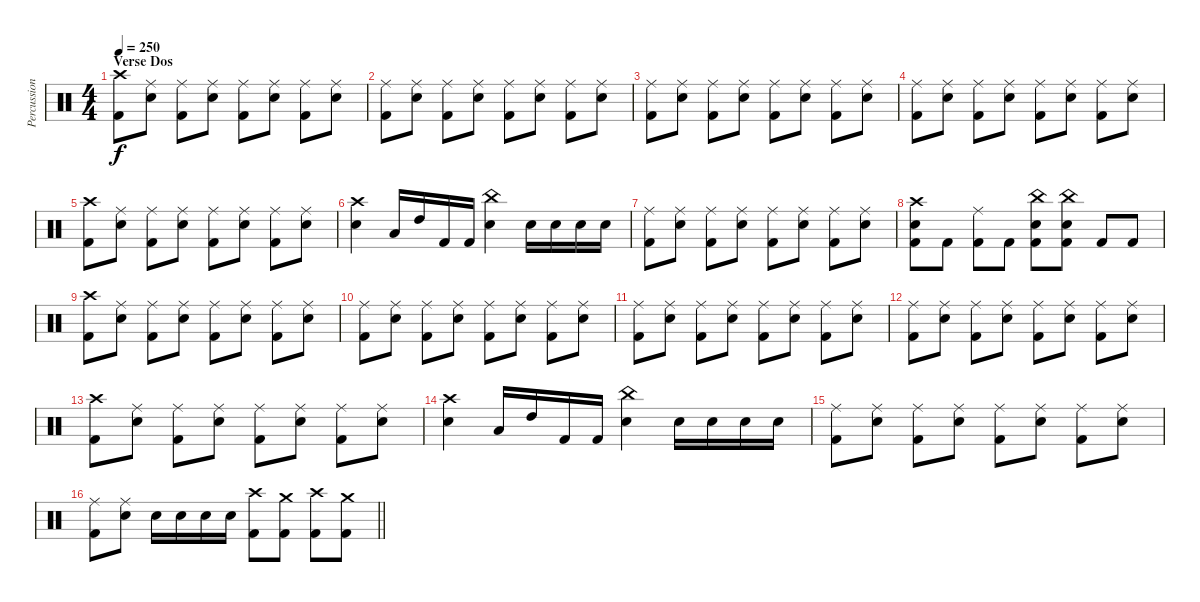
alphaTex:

\track ("Percussion" "Percussion") {instrument percussion}
\staff {score}
\articulation defaults
\ts (4 4)
\section ("" "Verse Dos")
\tempo 250
\clef neutral
\ks c
("Crash high (hit)" "Kick (hit) 2").8{dy f volume 16} ("Ride (middle)" "Electric Snare (hit)").8 ("Ride (middle)" "Kick (hit) 2").8 ("Ride (middle)" "Electric Snare (hit)").8 ("Ride (middle)" "Kick (hit) 2").8 ("Ride (middle)" "Electric Snare (hit)").8 ("Ride (middle)" "Kick (hit) 2").8 ("Ride (middle)" "Electric Snare (hit)").8 |
("Ride (middle)" "Kick (hit) 2").8 ("Ride (middle)" "Electric Snare (hit)").8 ("Ride (middle)" "Kick (hit) 2").8 ("Ride (middle)" "Electric Snare (hit)").8 ("Ride (middle)" "Kick (hit) 2").8 ("Ride (middle)" "Electric Snare (hit)").8 ("Ride (middle)" "Kick (hit) 2").8 ("Ride (middle)" "Electric Snare (hit)").8 |
("Ride (middle)" "Kick (hit) 2").8 ("Ride (middle)" "Electric Snare (hit)").8 ("Ride (middle)" "Kick (hit) 2").8 ("Ride (middle)" "Electric Snare (hit)").8 ("Ride (middle)" "Kick (hit) 2").8 ("Ride (middle)" "Electric Snare (hit)").8 ("Ride (middle)" "Kick (hit) 2").8 ("Ride (middle)" "Electric Snare (hit)").8 |
("Ride (middle)" "Kick (hit) 2").8 ("Ride (middle)" "Electric Snare (hit)").8 ("Ride (middle)" "Kick (hit) 2").8 ("Ride (middle)" "Electric Snare (hit)").8 ("Ride (middle)" "Kick (hit) 2").8 ("Ride (middle)" "Electric Snare (hit)").8 ("Ride (middle)" "Kick (hit) 2").8 ("Ride (middle)" "Electric Snare (hit)").8 |
("Crash high (hit)" "Kick (hit) 2").8 ("Ride (middle)" "Electric Snare (hit)").8 ("Ride (middle)" "Kick (hit) 2").8 ("Ride (middle)" "Electric Snare (hit)").8 ("Ride (middle)" "Kick (hit) 2").8 ("Ride (middle)" "Electric Snare (hit)").8 ("Ride (middle)" "Kick (hit) 2").8 ("Ride (middle)" "Electric Snare (hit)").8 |
("Crash high (hit)" "Electric Snare (hit)").4 "Low Tom (hit)".16 "High Tom (hit)".16 "Kick (hit) 2".16 "Kick (hit) 2".16 ("China (hit)" "Electric Snare (hit)").4 "Electric Snare (hit)".16 "Electric Snare (hit)".16 "Electric Snare (hit)".16 "Electric Snare (hit)".16 |
("Ride (middle)" "Kick (hit) 2").8 ("Ride (middle)" "Electric Snare (hit)").8 ("Ride (middle)" "Kick (hit) 2").8 ("Ride (middle)" "Electric Snare (hit)").8 ("Ride (middle)" "Kick (hit) 2").8 ("Ride (middle)" "Electric Snare (hit)").8 ("Ride (middle)" "Kick (hit) 2").8 ("Ride (middle)" "Electric Snare (hit)").8 |
("Crash high (hit)" "Kick (hit) 2" "Electric Snare (hit)").8 "Kick (hit) 2".8 ("Ride (middle)" "Kick (hit) 2").8 "Kick (hit) 2".8 ("China (hit)" "Kick (hit) 2" "Electric Snare (hit)").8 ("China (hit)" "Kick (hit) 2" "Electric Snare (hit)").8 "Kick (hit) 2".8 "Kick (hit) 2".8 |
("Crash high (hit)" "Kick (hit) 2").8 ("Ride (middle)" "Electric Snare (hit)").8 ("Ride (middle)" "Kick (hit) 2").8 ("Ride (middle)" "Electric Snare (hit)").8 ("Ride (middle)" "Kick (hit) 2").8 ("Ride (middle)" "Electric Snare (hit)").8 ("Ride (middle)" "Kick (hit) 2").8 ("Ride (middle)" "Electric Snare (hit)").8 |
("Ride (middle)" "Kick (hit) 2").8 ("Ride (middle)" "Electric Snare (hit)").8 ("Ride (middle)" "Kick (hit) 2").8 ("Ride (middle)" "Electric Snare (hit)").8 ("Ride (middle)" "Kick (hit) 2").8 ("Ride (middle)" "Electric Snare (hit)").8 ("Ride (middle)" "Kick (hit) 2").8 ("Ride (middle)" "Electric Snare (hit)").8 |
("Ride (middle)" "Kick (hit) 2").8 ("Ride (middle)" "Electric Snare (hit)").8 ("Ride (middle)" "Kick (hit) 2").8 ("Ride (middle)" "Electric Snare (hit)").8 ("Ride (middle)" "Kick (hit) 2").8 ("Ride (middle)" "Electric Snare (hit)").8 ("Ride (middle)" "Kick (hit) 2").8 ("Ride (middle)" "Electric Snare (hit)").8 |
("Ride (middle)" "Kick (hit) 2").8 ("Ride (middle)" "Electric Snare (hit)").8 ("Ride (middle)" "Kick (hit) 2").8 ("Ride (middle)" "Electric Snare (hit)").8 ("Ride (middle)" "Kick (hit) 2").8 ("Ride (middle)" "Electric Snare (hit)").8 ("Ride (middle)" "Kick (hit) 2").8 ("Ride (middle)" "Electric Snare (hit)").8 |
("Crash high (hit)" "Kick (hit) 2").8 ("Ride (middle)" "Electric Snare (hit)").8 ("Ride (middle)" "Kick (hit) 2").8 ("Ride (middle)" "Electric Snare (hit)").8 ("Ride (middle)" "Kick (hit) 2").8 ("Ride (middle)" "Electric Snare (hit)").8 ("Ride (middle)" "Kick (hit) 2").8 ("Ride (middle)" "Electric Snare (hit)").8 |
("Crash high (hit)" "Electric Snare (hit)").4 "Low Tom (hit)".16 "High Tom (hit)".16 "Kick (hit) 2".16 "Kick (hit) 2".16 ("China (hit)" "Electric Snare (hit)").4 "Electric Snare (hit)".16 "Electric Snare (hit)".16 "Electric Snare (hit)".16 "Electric Snare (hit)".16 |
("Ride (middle)" "Kick (hit) 2").8 ("Ride (middle)" "Electric Snare (hit)").8 ("Ride (middle)" "Kick (hit) 2").8 ("Ride (middle)" "Electric Snare (hit)").8 ("Ride (middle)" "Kick (hit) 2").8 ("Ride (middle)" "Electric Snare (hit)").8 ("Ride (middle)" "Kick (hit) 2").8 ("Ride (middle)" "Electric Snare (hit)").8 |
\barLineRight lightlight
("Ride (middle)" "Kick (hit) 2").8 ("Ride (middle)" "Electric Snare (hit)").8 "Electric Snare (hit)".16 "Electric Snare (hit)".16 "Electric Snare (hit)".16 "Electric Snare (hit)".16 ("Crash high (hit)" "Kick (hit) 2").8 ("Crash medium (hit)" "Kick (hit) 2").8 ("Crash high (hit)" "Kick (hit) 2").8 ("Crash medium (hit)" "Kick (hit) 2").8
